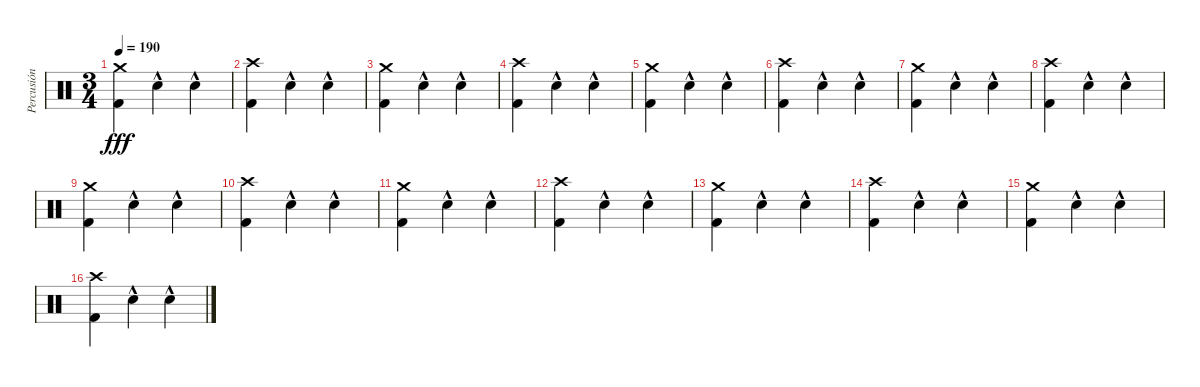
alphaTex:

\track ("Percusión" "Percusión") {instrument percussion}
\staff {score}
\articulation defaults
\ts (3 4)
\tempo 190
\clef neutral
\ks c
("Crash medium (hit)" "Kick (hit) 2").4{dy fff} "Electric Snare (hit)"{hac}.4 "Electric Snare (hit)"{hac}.4 |
("Crash high (hit)" "Kick (hit) 2").4 "Electric Snare (hit)"{hac}.4 "Electric Snare (hit)"{hac}.4 |
("Crash medium (hit)" "Kick (hit) 2").4 "Electric Snare (hit)"{hac}.4 "Electric Snare (hit)"{hac}.4 |
("Crash high (hit)" "Kick (hit) 2").4 "Electric Snare (hit)"{hac}.4 "Electric Snare (hit)"{hac}.4 |
("Crash medium (hit)" "Kick (hit) 2").4 "Electric Snare (hit)"{hac}.4 "Electric Snare (hit)"{hac}.4 |
("Crash high (hit)" "Kick (hit) 2").4 "Electric Snare (hit)"{hac}.4 "Electric Snare (hit)"{hac}.4 |
("Crash medium (hit)" "Kick (hit) 2").4 "Electric Snare (hit)"{hac}.4 "Electric Snare (hit)"{hac}.4 |
("Crash high (hit)" "Kick (hit) 2").4 "Electric Snare (hit)"{hac}.4 "Electric Snare (hit)"{hac}.4 |
("Crash medium (hit)" "Kick (hit) 2").4 "Electric Snare (hit)"{hac}.4 "Electric Snare (hit)"{hac}.4 |
("Crash high (hit)" "Kick (hit) 2").4 "Electric Snare (hit)"{hac}.4 "Electric Snare (hit)"{hac}.4 |
("Crash medium (hit)" "Kick (hit) 2").4 "Electric Snare (hit)"{hac}.4 "Electric Snare (hit)"{hac}.4 |
("Crash high (hit)" "Kick (hit) 2").4 "Electric Snare (hit)"{hac}.4 "Electric Snare (hit)"{hac}.4 |
("Crash medium (hit)" "Kick (hit) 2").4 "Electric Snare (hit)"{hac}.4 "Electric Snare (hit)"{hac}.4 |
("Crash high (hit)" "Kick (hit) 2").4 "Electric Snare (hit)"{hac}.4 "Electric Snare (hit)"{hac}.4 |
("Crash medium (hit)" "Kick (hit) 2").4 "Electric Snare (hit)"{hac}.4 "Electric Snare (hit)"{hac}.4 |
("Crash high (hit)" "Kick (hit) 2").4 "Electric Snare (hit)"{hac}.4 "Electric Snare (hit)"{hac}.4
